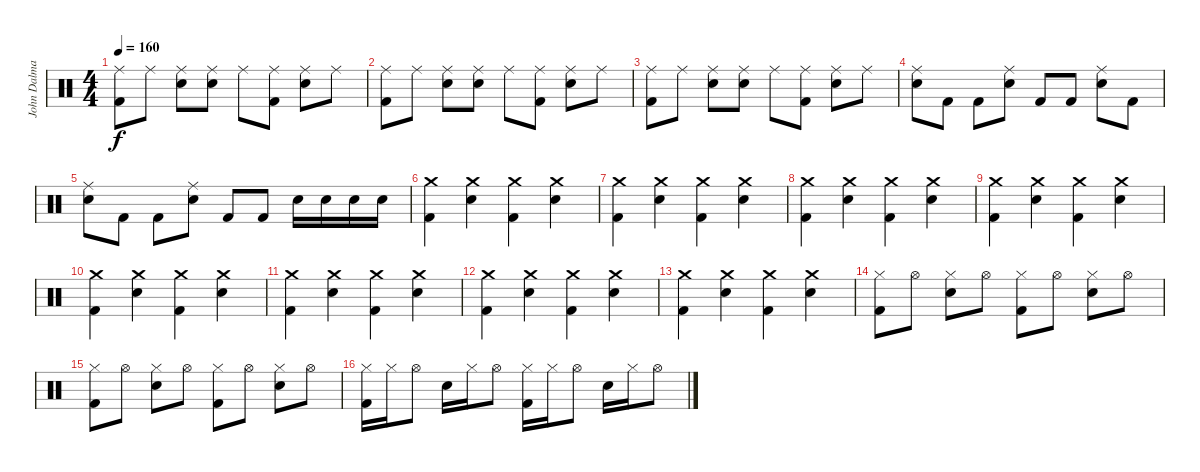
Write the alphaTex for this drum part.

\track ("John Dalmayian - Drums" "John Dalma") {instrument percussion}
\staff {score}
\articulation defaults
\ts (4 4)
\tempo 160
\clef neutral
\ks c
("Ride (middle)" "Kick (hit) 2").8{dy f} "Ride (middle)".8 ("Ride (middle)" "Snare (hit) 2").8 ("Ride (middle)" "Snare (hit) 2").8 "Ride (middle)".8 ("Ride (middle)" "Kick (hit) 2").8 ("Ride (middle)" "Snare (hit) 2").8 "Ride (middle)".8 |
("Ride (middle)" "Kick (hit) 2").8 "Ride (middle)".8 ("Ride (middle)" "Snare (hit) 2").8 ("Ride (middle)" "Snare (hit) 2").8 "Ride (middle)".8 ("Ride (middle)" "Kick (hit) 2").8 ("Ride (middle)" "Snare (hit) 2").8 "Ride (middle)".8 |
("Ride (middle)" "Kick (hit) 2").8 "Ride (middle)".8 ("Ride (middle)" "Snare (hit) 2").8 ("Ride (middle)" "Snare (hit) 2").8 "Ride (middle)".8 ("Ride (middle)" "Kick (hit) 2").8 ("Ride (middle)" "Snare (hit) 2").8 "Ride (middle)".8 |
("Ride (middle)" "Snare (hit) 2").8 "Kick (hit) 2".8 "Kick (hit) 2".8 ("Ride (middle)" "Snare (hit) 2").8 "Kick (hit) 2".8 "Kick (hit) 2".8 ("Ride (middle)" "Snare (hit) 2").8 "Kick (hit) 2".8 |
("Ride (middle)" "Snare (hit) 2").8 "Kick (hit) 2".8 "Kick (hit) 2".8 ("Ride (middle)" "Snare (hit) 2").8 "Kick (hit) 2".8 "Kick (hit) 2".8 "Snare (hit) 2".16 "Snare (hit) 2".16 "Snare (hit) 2".16 "Snare (hit) 2".16 |
("Crash medium (hit)" "Kick (hit) 2").4 ("Crash medium (hit)" "Snare (hit) 2").4 ("Crash medium (hit)" "Kick (hit) 2").4 ("Crash medium (hit)" "Snare (hit) 2").4 |
("Crash medium (hit)" "Kick (hit) 2").4 ("Crash medium (hit)" "Snare (hit) 2").4 ("Crash medium (hit)" "Kick (hit) 2").4 ("Crash medium (hit)" "Snare (hit) 2").4 |
("Crash medium (hit)" "Kick (hit) 2").4 ("Crash medium (hit)" "Snare (hit) 2").4 ("Crash medium (hit)" "Kick (hit) 2").4 ("Crash medium (hit)" "Snare (hit) 2").4 |
("Crash medium (hit)" "Kick (hit) 2").4 ("Crash medium (hit)" "Snare (hit) 2").4 ("Crash medium (hit)" "Kick (hit) 2").4 ("Crash medium (hit)" "Snare (hit) 2").4 |
("Crash medium (hit)" "Kick (hit) 2").4 ("Crash medium (hit)" "Snare (hit) 2").4 ("Crash medium (hit)" "Kick (hit) 2").4 ("Crash medium (hit)" "Snare (hit) 2").4 |
("Crash medium (hit)" "Kick (hit) 2").4 ("Crash medium (hit)" "Snare (hit) 2").4 ("Crash medium (hit)" "Kick (hit) 2").4 ("Crash medium (hit)" "Snare (hit) 2").4 |
("Crash medium (hit)" "Kick (hit) 2").4 ("Crash medium (hit)" "Snare (hit) 2").4 ("Crash medium (hit)" "Kick (hit) 2").4 ("Crash medium (hit)" "Snare (hit) 2").4 |
("Crash medium (hit)" "Kick (hit) 2").4 ("Crash medium (hit)" "Snare (hit) 2").4 ("Crash medium (hit)" "Kick (hit) 2").4 ("Crash medium (hit)" "Snare (hit) 2").4 |
("Hi-Hat (closed)" "Kick (hit) 2").8 "Hi-Hat (open)".8 ("Hi-Hat (closed)" "Snare (hit) 2").8 "Hi-Hat (open)".8 ("Hi-Hat (closed)" "Kick (hit) 2").8 "Hi-Hat (open)".8 ("Hi-Hat (closed)" "Snare (hit) 2").8 "Hi-Hat (open)".8 |
("Hi-Hat (closed)" "Kick (hit) 2").8 "Hi-Hat (open)".8 ("Hi-Hat (closed)" "Snare (hit) 2").8 "Hi-Hat (open)".8 ("Hi-Hat (closed)" "Kick (hit) 2").8 "Hi-Hat (open)".8 ("Hi-Hat (closed)" "Snare (hit) 2").8 "Hi-Hat (open)".8 |
("Hi-Hat (closed)" "Kick (hit) 2").16 "Hi-Hat (closed)".16 "Hi-Hat (open)".8 "Snare (hit) 2".16 "Hi-Hat (closed)".16 "Hi-Hat (open)".8 ("Hi-Hat (closed)" "Kick (hit) 2").16 "Hi-Hat (closed)".16 "Hi-Hat (open)".8 "Snare (hit) 2".16 "Hi-Hat (closed)".16 "Hi-Hat (open)".8
